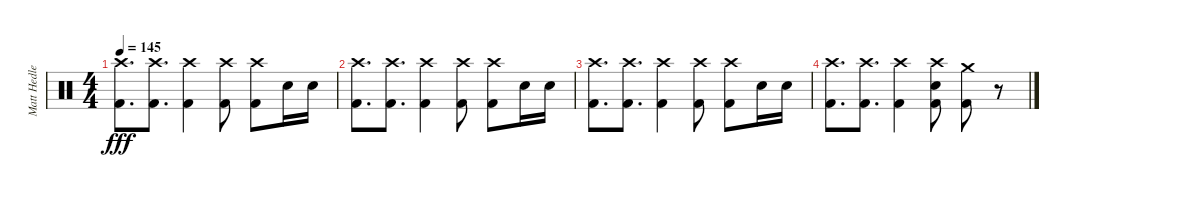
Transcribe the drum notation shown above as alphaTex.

\track ("Matt Hedlers" "Matt Hedle") {instrument percussion}
\staff {score}
\articulation defaults
\ts (4 4)
\tempo 145
\clef neutral
\ks c
("Crash high (hit)" "Kick (hit) 2").8{d dy fff} ("Crash high (hit)" "Kick (hit) 2").8{d} ("Crash high (hit)" "Kick (hit) 2").4 ("Crash high (hit)" "Kick (hit) 2").8 ("Crash high (hit)" "Kick (hit) 2").8 "Snare (hit) 2".16 "Snare (hit) 2".16 |
("Crash high (hit)" "Kick (hit) 2").8{d} ("Crash high (hit)" "Kick (hit) 2").8{d} ("Crash high (hit)" "Kick (hit) 2").4 ("Crash high (hit)" "Kick (hit) 2").8 ("Crash high (hit)" "Kick (hit) 2").8 "Snare (hit) 2".16 "Snare (hit) 2".16 |
("Crash high (hit)" "Kick (hit) 2").8{d} ("Crash high (hit)" "Kick (hit) 2").8{d} ("Crash high (hit)" "Kick (hit) 2").4 ("Crash high (hit)" "Kick (hit) 2").8 ("Crash high (hit)" "Kick (hit) 2").8 "Snare (hit) 2".16 "Snare (hit) 2".16 |
("Crash high (hit)" "Kick (hit) 2").8{d} ("Crash high (hit)" "Kick (hit) 2").8{d} ("Crash high (hit)" "Kick (hit) 2").4 ("Crash high (hit)" "Snare (hit) 2" "Kick (hit) 2").8 ("Crash medium (hit)" "Kick (hit) 2").8 r.8
